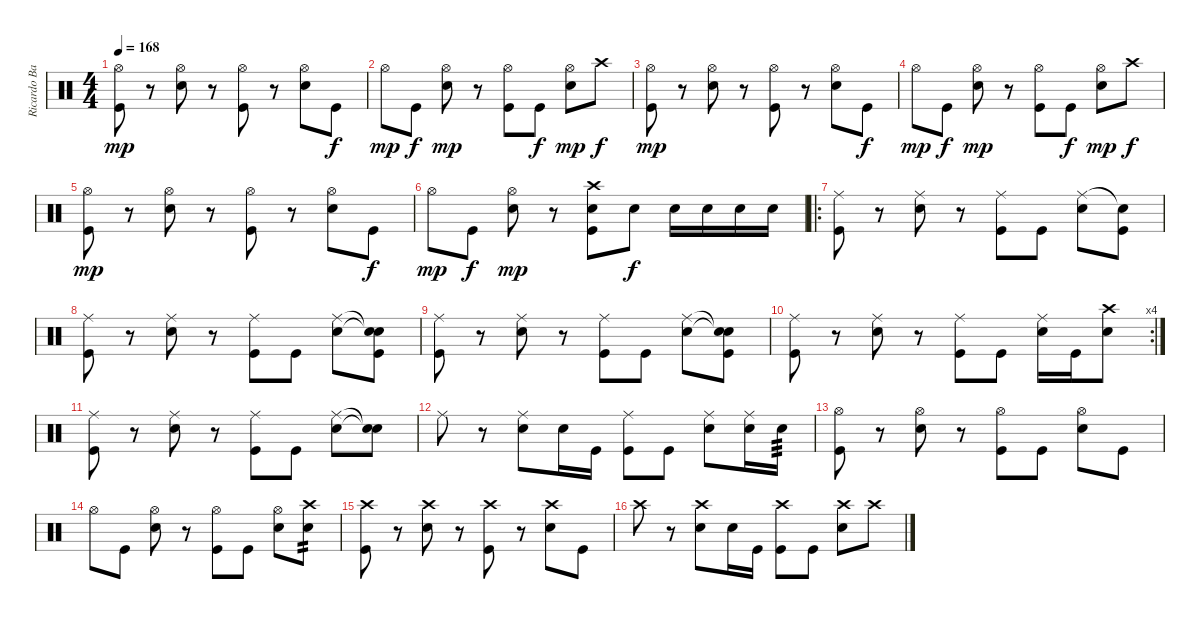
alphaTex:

\track ("Ricardo Barrenechea" "Ricardo Ba") {instrument percussion}
\staff {score}
\articulation defaults
\ts (4 4)
\tempo 168
\clef neutral
\ks c
("Hi-Hat (open)" "Kick (hit)").8{dy mp} r.8 ("Hi-Hat (open)" "Snare (hit) 2").8 r.8 ("Hi-Hat (open)" "Kick (hit)").8 r.8 ("Hi-Hat (open)" "Snare (hit) 2").8 "Kick (hit)".8{dy f} |
"Hi-Hat (open)".8{dy mp} "Kick (hit)".8{dy f} ("Hi-Hat (open)" "Snare (hit) 2").8{dy mp} r.8 ("Hi-Hat (open)" "Kick (hit)").8 "Kick (hit)".8{dy f} ("Hi-Hat (open)" "Snare (hit) 2").8{dy mp} "Crash high (hit)".8{dy f} |
("Hi-Hat (open)" "Kick (hit)").8{dy mp} r.8 ("Hi-Hat (open)" "Snare (hit) 2").8 r.8 ("Hi-Hat (open)" "Kick (hit)").8 r.8 ("Hi-Hat (open)" "Snare (hit) 2").8 "Kick (hit)".8{dy f} |
"Hi-Hat (open)".8{dy mp} "Kick (hit)".8{dy f} ("Hi-Hat (open)" "Snare (hit) 2").8{dy mp} r.8 ("Hi-Hat (open)" "Kick (hit)").8 "Kick (hit)".8{dy f} ("Hi-Hat (open)" "Snare (hit) 2").8{dy mp} "Crash high (hit)".8{dy f} |
("Hi-Hat (open)" "Kick (hit)").8{dy mp} r.8 ("Hi-Hat (open)" "Snare (hit) 2").8 r.8 ("Hi-Hat (open)" "Kick (hit)").8 r.8 ("Hi-Hat (open)" "Snare (hit) 2").8 "Kick (hit)".8{dy f} |
"Hi-Hat (open)".8{dy mp} "Kick (hit)".8{dy f} ("Hi-Hat (open)" "Snare (hit) 2").8{dy mp} r.8 ("Crash high (hit)" "Snare (hit) 2" "Kick (hit)").8 "Snare (hit) 2".8{dy f} "Snare (hit) 2".16 "Snare (hit) 2".16 "Snare (hit) 2".16 "Snare (hit) 2".16 |
\ro
("Ride (middle)" "Kick (hit)").8 r.8 ("Ride (middle)" "Snare (hit) 2").8 r.8 ("Ride (middle)" "Kick (hit)").8 "Kick (hit)".8 ("Ride (middle)" "Snare (hit) 2").8 ("Snare (hit)"{t} "Kick (hit)").8 |
("Ride (middle)" "Kick (hit)").8 r.8 ("Ride (middle)" "Snare (hit) 2").8 r.8 ("Ride (middle)" "Kick (hit)").8 "Kick (hit)".8 ("Ride (middle)" "Snare (hit) 2").8 ("Snare (hit)"{t} "Snare (hit)"{t} "Kick (hit)").8 |
("Ride (middle)" "Kick (hit)").8 r.8 ("Ride (middle)" "Snare (hit) 2").8 r.8 ("Ride (middle)" "Kick (hit)").8 "Kick (hit)".8 ("Ride (middle)" "Snare (hit) 2").8 ("Snare (hit)"{t} "Snare (hit)"{t} "Kick (hit)").8 |
\rc 4
("Ride (middle)" "Kick (hit)").8 r.8 ("Ride (middle)" "Snare (hit) 2").8 r.8 ("Ride (middle)" "Kick (hit)").8 "Kick (hit)".8 ("Ride (middle)" "Snare (hit) 2").16 "Kick (hit)".16 ("Crash high (hit)" "Snare (hit) 2").8 |
("Ride (middle)" "Kick (hit)").8 r.8 ("Ride (middle)" "Snare (hit) 2").8 r.8 ("Ride (middle)" "Kick (hit)").8 "Kick (hit)".8 ("Ride (middle)" "Snare (hit) 2").8 ("Snare (hit)"{t} "Snare (hit)"{t}).8 |
"Ride (middle)".8 r.8 ("Ride (middle)" "Snare (hit) 2").8 "Snare (hit) 2".16 "Kick (hit)".16 ("Ride (middle)" "Kick (hit)").8 "Kick (hit)".8 ("Ride (middle)" "Snare (hit) 2").8 ("Ride (middle)" "Snare (hit) 2").16 "Snare (hit) 2".16{tp 3} |
("Hi-Hat (open)" "Kick (hit)").8 r.8 ("Hi-Hat (open)" "Snare (hit) 2").8 r.8 ("Hi-Hat (open)" "Kick (hit)").8 "Kick (hit)".8 ("Hi-Hat (open)" "Snare (hit) 2").8 "Kick (hit)".8 |
"Hi-Hat (open)".8 "Kick (hit)".8 ("Hi-Hat (open)" "Snare (hit) 2").8 r.8 ("Hi-Hat (open)" "Kick (hit)").8 "Kick (hit)".8 ("Hi-Hat (open)" "Snare (hit) 2").8 ("Crash high (hit)" "Snare (hit) 2").8{tp 2} |
("Crash high (hit)" "Kick (hit)").8 r.8 ("Crash high (hit)" "Snare (hit) 2").8 r.8 ("Crash high (hit)" "Kick (hit)").8 r.8 ("Crash high (hit)" "Snare (hit) 2").8 "Kick (hit)".8 |
"Crash high (hit)".8 r.8 ("Crash high (hit)" "Snare (hit) 2").8 "Snare (hit) 2".16 "Kick (hit)".16 ("Crash high (hit)" "Kick (hit)").8 "Kick (hit)".8 ("Crash high (hit)" "Snare (hit) 2").8 "Crash high (hit)".8
